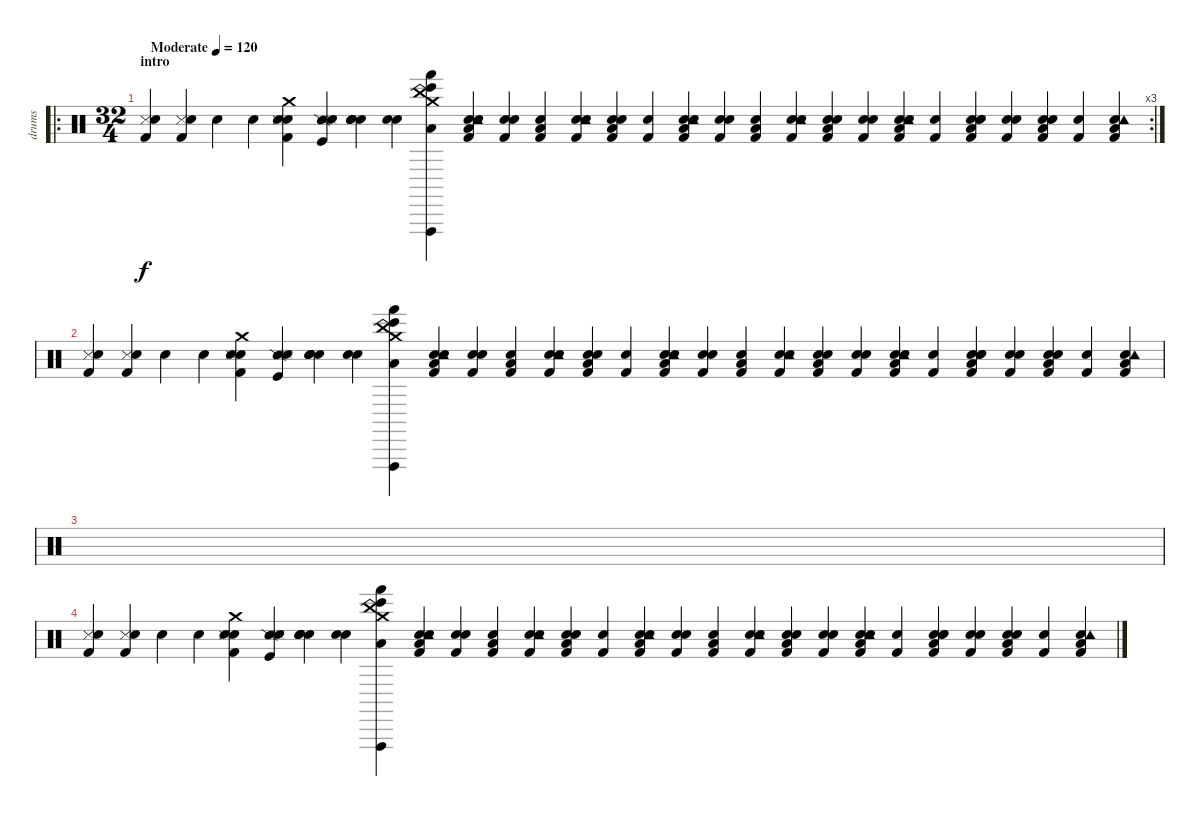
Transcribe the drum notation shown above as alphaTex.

\track ("drums" "drums") {instrument percussion}
\staff {score}
\articulation defaults
\ro
\rc 3
\ts (32 4)
\section ("" "intro")
\tempo (120 "Moderate")
\clef neutral
\ks c
("Kick (hit) 2" "Snare (side stick) 3" "Snare (hit) 2").4{dy f} ("Kick (hit) 2" "Snare (side stick) 3" "Snare (hit) 2").4 "Hand Clap (hit)".4 "Hand Clap (hit)".4 ("Electric Snare (hit)" "Kick (hit) 2" "Snare (side stick) 3" "Snare (hit) 2" "Crash medium (hit)").4 ("Snare (side stick) 2" "Metronome (hit)" "Metronome (bell)" "Kick (hit)").4 ("Electric Snare (hit)" "Electric Snare (hit)" "Electric Snare (hit)" "Hand Clap (hit)").4 ("Hand Clap (hit)" "Electric Snare (hit)").4 ("China (hit)" "Crash medium (hit)" "Vibraslap (hit)" "Low Tom (hit)" "Hand (hit)" "Bongo High (hit)").4 ("Electric Snare (hit)" "Tambourine (hit)" "Low Tom (hit)" "Hand Clap (hit)" "Kick (hit) 2").4 ("Electric Snare (hit)" "Hand Clap (hit)" "Kick (hit) 2").4 ("Electric Snare (hit)" "Low Tom (hit)" "Kick (hit) 2").4 ("Electric Snare (hit)" "Tambourine (hit)" "Hand Clap (hit)" "Kick (hit) 2").4 ("Electric Snare (hit)" "Low Tom (hit)" "Hand Clap (hit)" "Kick (hit) 2").4 ("Electric Snare (hit)" "Kick (hit) 2").4 ("Electric Snare (hit)" "Tambourine (hit)" "Low Tom (hit)" "Hand Clap (hit)" "Kick (hit) 2").4 ("Electric Snare (hit)" "Hand Clap (hit)" "Kick (hit) 2").4 ("Electric Snare (hit)" "Low Tom (hit)" "Kick (hit) 2").4 ("Electric Snare (hit)" "Tambourine (hit)" "Hand Clap (hit)" "Kick (hit) 2").4 ("Electric Snare (hit)" "Low Tom (hit)" "Hand Clap (hit)" "Kick (hit) 2").4 ("Electric Snare (hit)" "Hand Clap (hit)" "Kick (hit) 2").4 ("Electric Snare (hit)" "Tambourine (hit)" "Low Tom (hit)" "Hand Clap (hit)" "Kick (hit) 2").4 ("Electric Snare (hit)" "Kick (hit) 2").4 ("Hand Clap (hit)" "Electric Snare (hit)" "Low Tom (hit)" "Hand Clap (hit)" "Kick (hit) 2").4 ("Hand Clap (hit)" "Electric Snare (hit)" "Kick (hit) 2").4 ("Hand Clap (hit)" "Electric Snare (hit)" "Low Tom (hit)" "Kick (hit) 2").4 ("Electric Snare (hit)" "Kick (hit) 2").4 ("Electric Snare (hit)" "Tambourine (hit)" "Low Tom (hit)" "Kick (hit) 2").4 |
("Kick (hit) 2" "Snare (side stick) 3" "Snare (hit) 2").4 ("Kick (hit) 2" "Snare (side stick) 3" "Snare (hit) 2").4 "Hand Clap (hit)".4 "Hand Clap (hit)".4 ("Electric Snare (hit)" "Kick (hit) 2" "Snare (side stick) 3" "Snare (hit) 2" "Crash medium (hit)").4 ("Snare (side stick) 2" "Metronome (hit)" "Metronome (bell)" "Kick (hit)").4 ("Electric Snare (hit)" "Electric Snare (hit)" "Electric Snare (hit)" "Hand Clap (hit)").4 ("Hand Clap (hit)" "Electric Snare (hit)").4 ("China (hit)" "Crash medium (hit)" "Vibraslap (hit)" "Low Tom (hit)" "Hand (hit)" "Bongo High (hit)").4 ("Electric Snare (hit)" "Tambourine (hit)" "Low Tom (hit)" "Hand Clap (hit)" "Kick (hit) 2").4 ("Electric Snare (hit)" "Hand Clap (hit)" "Kick (hit) 2").4 ("Electric Snare (hit)" "Low Tom (hit)" "Kick (hit) 2").4 ("Electric Snare (hit)" "Tambourine (hit)" "Hand Clap (hit)" "Kick (hit) 2").4 ("Electric Snare (hit)" "Low Tom (hit)" "Hand Clap (hit)" "Kick (hit) 2").4 ("Electric Snare (hit)" "Kick (hit) 2").4 ("Electric Snare (hit)" "Tambourine (hit)" "Low Tom (hit)" "Hand Clap (hit)" "Kick (hit) 2").4 ("Electric Snare (hit)" "Hand Clap (hit)" "Kick (hit) 2").4 ("Electric Snare (hit)" "Low Tom (hit)" "Kick (hit) 2").4 ("Electric Snare (hit)" "Tambourine (hit)" "Hand Clap (hit)" "Kick (hit) 2").4 ("Electric Snare (hit)" "Low Tom (hit)" "Hand Clap (hit)" "Kick (hit) 2").4 ("Electric Snare (hit)" "Hand Clap (hit)" "Kick (hit) 2").4 ("Electric Snare (hit)" "Tambourine (hit)" "Low Tom (hit)" "Hand Clap (hit)" "Kick (hit) 2").4 ("Electric Snare (hit)" "Kick (hit) 2").4 ("Hand Clap (hit)" "Electric Snare (hit)" "Low Tom (hit)" "Hand Clap (hit)" "Kick (hit) 2").4 ("Hand Clap (hit)" "Electric Snare (hit)" "Kick (hit) 2").4 ("Hand Clap (hit)" "Electric Snare (hit)" "Low Tom (hit)" "Kick (hit) 2").4 ("Electric Snare (hit)" "Kick (hit) 2").4 ("Electric Snare (hit)" "Tambourine (hit)" "Low Tom (hit)" "Kick (hit) 2").4 |
|
("Kick (hit) 2" "Snare (side stick) 3" "Snare (hit) 2").4 ("Kick (hit) 2" "Snare (side stick) 3" "Snare (hit) 2").4 "Hand Clap (hit)".4 "Hand Clap (hit)".4 ("Electric Snare (hit)" "Kick (hit) 2" "Snare (side stick) 3" "Snare (hit) 2" "Crash medium (hit)").4 ("Snare (side stick) 2" "Metronome (hit)" "Metronome (bell)" "Kick (hit)").4 ("Electric Snare (hit)" "Electric Snare (hit)" "Electric Snare (hit)" "Hand Clap (hit)").4 ("Hand Clap (hit)" "Electric Snare (hit)").4 ("China (hit)" "Crash medium (hit)" "Vibraslap (hit)" "Low Tom (hit)" "Hand (hit)" "Bongo High (hit)").4 ("Electric Snare (hit)" "Tambourine (hit)" "Low Tom (hit)" "Hand Clap (hit)" "Kick (hit) 2").4 ("Electric Snare (hit)" "Hand Clap (hit)" "Kick (hit) 2").4 ("Electric Snare (hit)" "Low Tom (hit)" "Kick (hit) 2").4 ("Electric Snare (hit)" "Tambourine (hit)" "Hand Clap (hit)" "Kick (hit) 2").4 ("Electric Snare (hit)" "Low Tom (hit)" "Hand Clap (hit)" "Kick (hit) 2").4 ("Electric Snare (hit)" "Kick (hit) 2").4 ("Electric Snare (hit)" "Tambourine (hit)" "Low Tom (hit)" "Hand Clap (hit)" "Kick (hit) 2").4 ("Electric Snare (hit)" "Hand Clap (hit)" "Kick (hit) 2").4 ("Electric Snare (hit)" "Low Tom (hit)" "Kick (hit) 2").4 ("Electric Snare (hit)" "Tambourine (hit)" "Hand Clap (hit)" "Kick (hit) 2").4 ("Electric Snare (hit)" "Low Tom (hit)" "Hand Clap (hit)" "Kick (hit) 2").4 ("Electric Snare (hit)" "Hand Clap (hit)" "Kick (hit) 2").4 ("Electric Snare (hit)" "Tambourine (hit)" "Low Tom (hit)" "Hand Clap (hit)" "Kick (hit) 2").4 ("Electric Snare (hit)" "Kick (hit) 2").4 ("Hand Clap (hit)" "Electric Snare (hit)" "Low Tom (hit)" "Hand Clap (hit)" "Kick (hit) 2").4 ("Hand Clap (hit)" "Electric Snare (hit)" "Kick (hit) 2").4 ("Hand Clap (hit)" "Electric Snare (hit)" "Low Tom (hit)" "Kick (hit) 2").4 ("Electric Snare (hit)" "Kick (hit) 2").4 ("Electric Snare (hit)" "Tambourine (hit)" "Low Tom (hit)" "Kick (hit) 2").4
